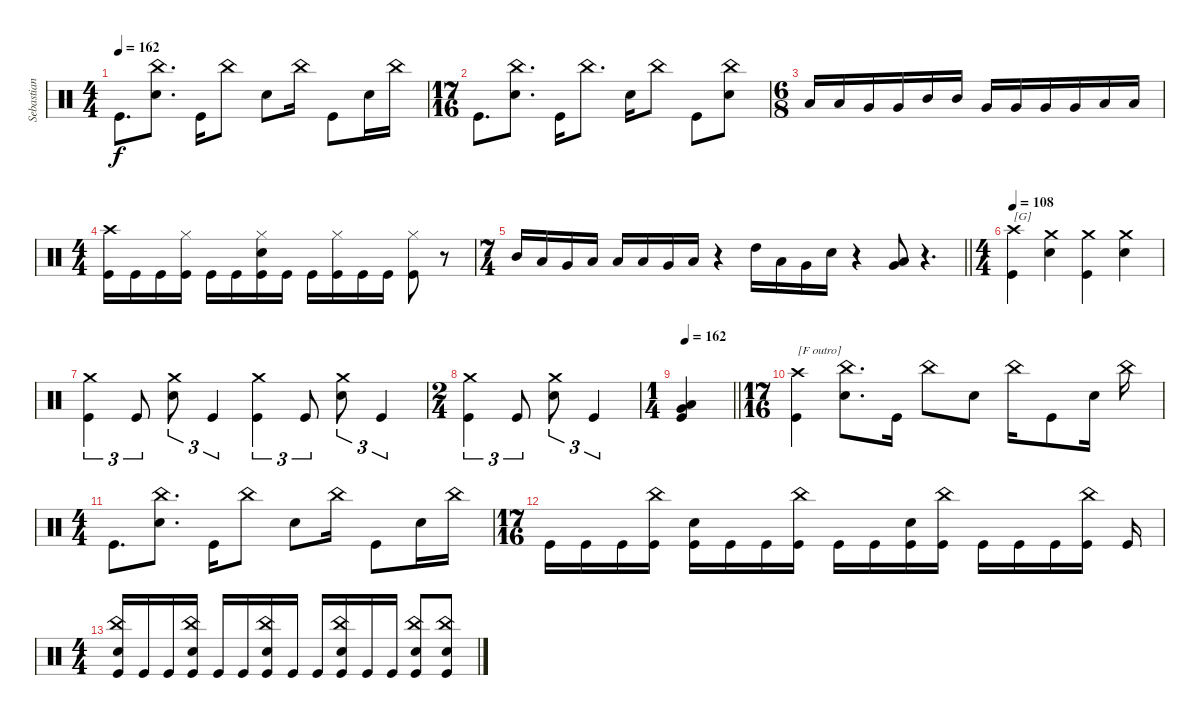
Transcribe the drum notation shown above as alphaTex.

\track ("Sebastian Lanser" "Sebastian ") {instrument percussion}
\staff {score}
\articulation defaults
\ts (4 4)
\tempo 162
\clef neutral
\ks c "Kick (hit)".8{d dy f}
("China (hit)" "Snare (hit) 2").8{d} "Kick (hit)".16 "China (hit)".8 "Snare (hit) 2".8 "China (hit)".16 "Kick (hit)".8 "Snare (hit) 2".16 "China (hit)".16 |
\ts (17 16)
"Kick (hit)".8{d} ("China (hit)" "Snare (hit) 2").8{d} "Kick (hit)".16 "China (hit)".8{d} "Snare (hit) 2".16 "China (hit)".8 "Kick (hit)".8 ("China (hit)" "Snare (hit) 2").8 |
\ts (6 8)
"Low Tom (hit)".16 "Low Tom (hit)".16 "Very Low Tom (hit)".16 "Very Low Tom (hit)".16 "Mid Tom (hit)".16 "Mid Tom (hit)".16 "Very Low Tom (hit)".16 "Very Low Tom (hit)".16 "Very Low Tom (hit)".16 "Very Low Tom (hit)".16 "Low Floor Tom (hit)".16 "Low Floor Tom (hit)".16 |
\ts (4 4)
("Crash high (hit)" "Kick (hit)").16 "Kick (hit)".16 "Kick (hit)".16 ("Hi-Hat (closed)" "Kick (hit)").16 "Kick (hit)".16 "Kick (hit)".16 ("Hi-Hat (closed)" "Snare (hit) 2" "Kick (hit)").16 "Kick (hit)".16 "Kick (hit)".16 ("Hi-Hat (closed)" "Kick (hit)").16 "Kick (hit)".16 "Kick (hit)".16 ("Hi-Hat (closed)" "Kick (hit)").8 r.8 |
\ts (7 4)
\barLineRight lightlight "Mid Tom (hit)".16 "Low Tom (hit)".16 "Very Low Tom (hit)".16 "Low Floor Tom (hit)".16 "Low Tom (hit)".16 "Low Tom (hit)".16 "Very Low Tom (hit)".16 "Low Floor Tom (hit)".16
r.4 "High Tom (hit)".16 "Low Tom (hit)".16 "Very Low Tom (hit)".16 "Snare (hit) 2".16 r.4 ("Low Floor Tom (hit)" "Very Low Tom (hit)").8 r.4{d} |
\ts (4 4)
\tempo 108
("Crash high (hit)" "Kick (hit)").4{txt "[G]"} ("Crash medium (hit)" "Snare (hit) 2").4 ("Crash medium (hit)" "Kick (hit)").4 ("Crash medium (hit)" "Snare (hit) 2").4 |
("Crash medium (hit)" "Kick (hit)").4{tu (3 2)} "Kick (hit)".8{tu (3 2)} ("Crash medium (hit)" "Snare (hit) 2").8{tu (3 2)} "Kick (hit)".4{tu (3 2)} ("Crash medium (hit)" "Kick (hit)").4{tu (3 2)} "Kick (hit)".8{tu (3 2)} ("Crash medium (hit)" "Snare (hit) 2").8{tu (3 2)} "Kick (hit)".4{tu (3 2)} |
\ts (2 4)
("Crash medium (hit)" "Kick (hit)").4{tu (3 2)} "Kick (hit)".8{tu (3 2)} ("Crash medium (hit)" "Snare (hit) 2").8{tu (3 2)} "Kick (hit)".4{tu (3 2)} |
\ts (1 4)
\tempo 162
\barLineRight lightlight
("Low Tom (hit)" "Very Low Tom (hit)" "Kick (hit)").4 |
\ts (17 16)
("Crash high (hit)" "Kick (hit)").4{txt "[F outro]"} ("China (hit)" "Snare (hit) 2").8{d} "Kick (hit)".16 "China (hit)".8 "Snare (hit) 2".8 "China (hit)".16 "Kick (hit)".8 "Snare (hit) 2".16 "China (hit)".16 |
\ts (4 4)
"Kick (hit)".8{d} ("China (hit)" "Snare (hit) 2").8{d} "Kick (hit)".16 "China (hit)".8 "Snare (hit) 2".8 "China (hit)".16 "Kick (hit)".8 "Snare (hit) 2".16 "China (hit)".16 |
\ts (17 16)
"Kick (hit)".16 "Kick (hit)".16 "Kick (hit)".16 ("China (hit)" "Kick (hit)").16 ("Snare (hit) 2" "Kick (hit)").16 "Kick (hit)".16 "Kick (hit)".16 ("China (hit)" "Kick (hit)").16 "Kick (hit)".16 "Kick (hit)".16 ("Snare (hit) 2" "Kick (hit)").16 ("China (hit)" "Kick (hit)").16 "Kick (hit)".16 "Kick (hit)".16 "Kick (hit)".16 ("China (hit)" "Kick (hit)").16 "Kick (hit)".16 |
\ts (4 4)
("China (hit)" "Snare (hit) 2" "Kick (hit)").16 "Kick (hit)".16 "Kick (hit)".16 ("China (hit)" "Snare (hit) 2" "Kick (hit)").16 "Kick (hit)".16 "Kick (hit)".16 ("China (hit)" "Snare (hit) 2" "Kick (hit)").16 "Kick (hit)".16 "Kick (hit)".16 ("China (hit)" "Snare (hit) 2" "Kick (hit)").16 "Kick (hit)".16 "Kick (hit)".16 ("China (hit)" "Snare (hit) 2" "Kick (hit)").8 ("China (hit)" "Snare (hit) 2" "Kick (hit)").8
